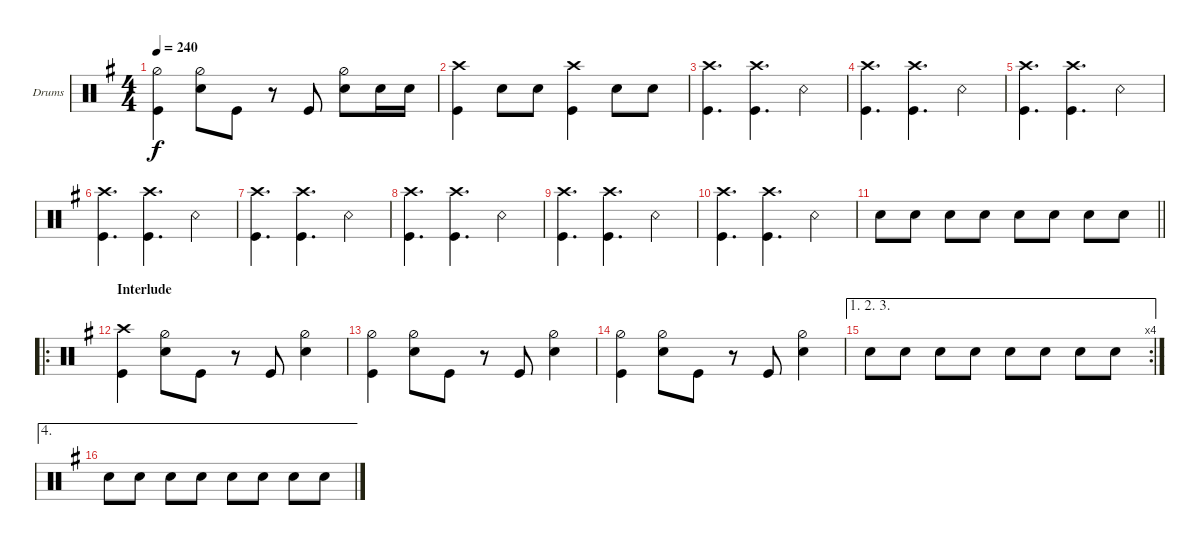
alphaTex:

\defaultSystemsLayout 4
\bracketExtendMode groupsimilarinstruments
\firstSystemTrackNameOrientation horizontal
\otherSystemsTrackNameOrientation horizontal
\track ("Drums" "Drums") {instrument percussion}
\staff {score}
\articulation defaults
\ts (4 4)
\tempo 240
\clef neutral
\ks g
("Kick (hit)" "Hi-Hat (half)").4{dy f} ("Snare (hit) 2" "Hi-Hat (half)").8 "Kick (hit)".8 r.8 "Kick (hit)".8 ("Snare (hit) 2" "Hi-Hat (half)").8 "Snare (hit) 2".16 "Snare (hit) 2".16 |
("Kick (hit)" "Crash high (hit)").4 "Snare (hit) 2".8 "Snare (hit) 2".8 ("Kick (hit)" "Crash high (hit)").4 "Snare (hit) 2".8 "Snare (hit) 2".8 |
("Kick (hit)" "Crash high (hit)").4{d} ("Kick (hit)" "Crash high (hit)").4{d} "Snare (rim shot)".4 |
("Kick (hit)" "Crash high (hit)").4{d} ("Kick (hit)" "Crash high (hit)").4{d} "Snare (rim shot)".4 |
("Kick (hit)" "Crash high (hit)").4{d} ("Kick (hit)" "Crash high (hit)").4{d} "Snare (rim shot)".4 |
("Kick (hit)" "Crash high (hit)").4{d} ("Kick (hit)" "Crash high (hit)").4{d} "Snare (rim shot)".4 |
("Kick (hit)" "Crash high (hit)").4{d} ("Kick (hit)" "Crash high (hit)").4{d} "Snare (rim shot)".4 |
("Kick (hit)" "Crash high (hit)").4{d} ("Kick (hit)" "Crash high (hit)").4{d} "Snare (rim shot)".4 |
("Kick (hit)" "Crash high (hit)").4{d} ("Kick (hit)" "Crash high (hit)").4{d} "Snare (rim shot)".4 |
("Kick (hit)" "Crash high (hit)").4{d} ("Kick (hit)" "Crash high (hit)").4{d} "Snare (rim shot)".4 |
\barLineRight lightlight "Snare (hit) 2".8 "Snare (hit) 2".8 "Snare (hit) 2".8 "Snare (hit) 2".8 "Snare (hit) 2".8 "Snare (hit) 2".8 "Snare (hit) 2".8 "Snare (hit) 2".8
|
\ro
\section ("" "Interlude")
("Kick (hit)" "Crash high (hit)").4 ("Snare (hit) 2" "Hi-Hat (half)").8 "Kick (hit)".8 r.8 "Kick (hit)".8 ("Snare (hit) 2" "Hi-Hat (half)").4 |
("Kick (hit)" "Hi-Hat (half)").4 ("Snare (hit) 2" "Hi-Hat (half)").8 "Kick (hit)".8 r.8 "Kick (hit)".8 ("Snare (hit) 2" "Hi-Hat (half)").4 |
("Kick (hit)" "Hi-Hat (half)").4 ("Snare (hit) 2" "Hi-Hat (half)").8 "Kick (hit)".8 r.8 "Kick (hit)".8 ("Snare (hit) 2" "Hi-Hat (half)").4 |
\ae (1 2 3)
\rc 4 "Snare (hit) 2".8 "Snare (hit) 2".8 "Snare (hit) 2".8 "Snare (hit) 2".8 "Snare (hit) 2".8 "Snare (hit) 2".8 "Snare (hit) 2".8 "Snare (hit) 2".8
|
\ae 4 "Snare (hit) 2".8 "Snare (hit) 2".8 "Snare (hit) 2".8 "Snare (hit) 2".8 "Snare (hit) 2".8 "Snare (hit) 2".8 "Snare (hit) 2".8 "Snare (hit) 2".8
